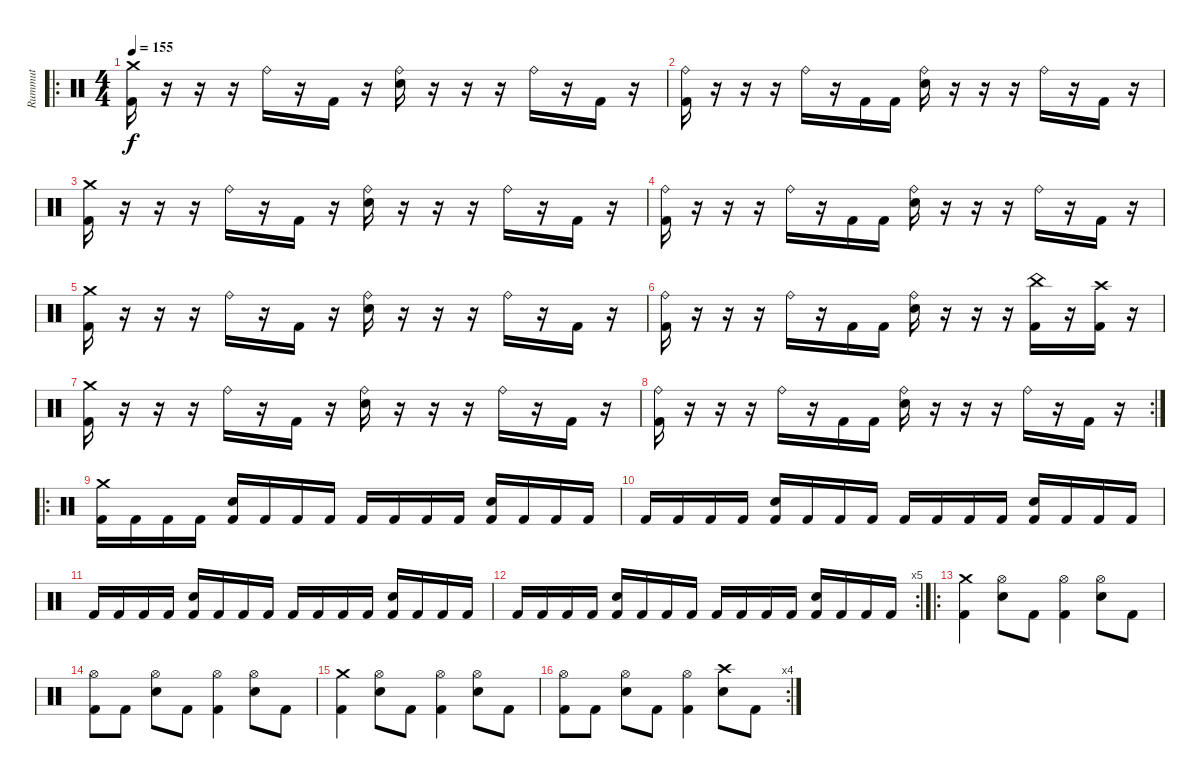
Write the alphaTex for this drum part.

\track ("Rummut" "Rummut") {instrument percussion}
\staff {score}
\articulation defaults
\ro
\ts (4 4)
\tempo 155
\clef neutral
\ks c
("Crash medium (hit)" "Kick (hit) 2").16{dy f} r.16 r.16 r.16 "Ride (bell)".16 r.16 "Kick (hit) 2".16 r.16 ("Ride (bell)" "Electric Snare (hit)").16 r.16 r.16 r.16 "Ride (bell)".16 r.16 "Kick (hit) 2".16 r.16 |
("Ride (bell)" "Kick (hit) 2").16 r.16 r.16 r.16 "Ride (bell)".16 r.16 "Kick (hit) 2".16 "Kick (hit) 2".16 ("Ride (bell)" "Electric Snare (hit)").16 r.16 r.16 r.16 "Ride (bell)".16 r.16 "Kick (hit) 2".16 r.16 |
("Crash medium (hit)" "Kick (hit) 2").16 r.16 r.16 r.16 "Ride (bell)".16 r.16 "Kick (hit) 2".16 r.16 ("Ride (bell)" "Electric Snare (hit)").16 r.16 r.16 r.16 "Ride (bell)".16 r.16 "Kick (hit) 2".16 r.16 |
("Ride (bell)" "Kick (hit) 2").16 r.16 r.16 r.16 "Ride (bell)".16 r.16 "Kick (hit) 2".16 "Kick (hit) 2".16 ("Ride (bell)" "Electric Snare (hit)").16 r.16 r.16 r.16 "Ride (bell)".16 r.16 "Kick (hit) 2".16 r.16 |
("Crash medium (hit)" "Kick (hit) 2").16 r.16 r.16 r.16 "Ride (bell)".16 r.16 "Kick (hit) 2".16 r.16 ("Ride (bell)" "Electric Snare (hit)").16 r.16 r.16 r.16 "Ride (bell)".16 r.16 "Kick (hit) 2".16 r.16 |
("Ride (bell)" "Kick (hit) 2").16 r.16 r.16 r.16 "Ride (bell)".16 r.16 "Kick (hit) 2".16 "Kick (hit) 2".16 ("Ride (bell)" "Electric Snare (hit)").16 r.16 r.16 r.16 ("China (hit)" "Kick (hit) 2").16 r.16 ("Crash high (hit)" "Kick (hit) 2").16 r.16 |
("Crash medium (hit)" "Kick (hit) 2").16 r.16 r.16 r.16 "Ride (bell)".16 r.16 "Kick (hit) 2".16 r.16 ("Ride (bell)" "Electric Snare (hit)").16 r.16 r.16 r.16 "Ride (bell)".16 r.16 "Kick (hit) 2".16 r.16 |
\rc 2
("Ride (bell)" "Kick (hit) 2").16 r.16 r.16 r.16 "Ride (bell)".16 r.16 "Kick (hit) 2".16 "Kick (hit) 2".16 ("Ride (bell)" "Electric Snare (hit)").16 r.16 r.16 r.16 "Ride (bell)".16 r.16 "Kick (hit) 2".16 r.16 |
\ro
("Crash medium (hit)" "Kick (hit) 2").16 "Kick (hit) 2".16 "Kick (hit) 2".16 "Kick (hit) 2".16 ("Electric Snare (hit)" "Kick (hit) 2").16 "Kick (hit) 2".16 "Kick (hit) 2".16 "Kick (hit) 2".16 "Kick (hit) 2".16 "Kick (hit) 2".16 "Kick (hit) 2".16 "Kick (hit) 2".16 ("Electric Snare (hit)" "Kick (hit) 2").16 "Kick (hit) 2".16 "Kick (hit) 2".16 "Kick (hit) 2".16 |
"Kick (hit) 2".16 "Kick (hit) 2".16 "Kick (hit) 2".16 "Kick (hit) 2".16 ("Electric Snare (hit)" "Kick (hit) 2").16 "Kick (hit) 2".16 "Kick (hit) 2".16 "Kick (hit) 2".16 "Kick (hit) 2".16 "Kick (hit) 2".16 "Kick (hit) 2".16 "Kick (hit) 2".16 ("Electric Snare (hit)" "Kick (hit) 2").16 "Kick (hit) 2".16 "Kick (hit) 2".16 "Kick (hit) 2".16 |
"Kick (hit) 2".16 "Kick (hit) 2".16 "Kick (hit) 2".16 "Kick (hit) 2".16 ("Electric Snare (hit)" "Kick (hit) 2").16 "Kick (hit) 2".16 "Kick (hit) 2".16 "Kick (hit) 2".16 "Kick (hit) 2".16 "Kick (hit) 2".16 "Kick (hit) 2".16 "Kick (hit) 2".16 ("Electric Snare (hit)" "Kick (hit) 2").16 "Kick (hit) 2".16 "Kick (hit) 2".16 "Kick (hit) 2".16 |
\rc 5 "Kick (hit) 2".16 "Kick (hit) 2".16 "Kick (hit) 2".16 "Kick (hit) 2".16
("Electric Snare (hit)" "Kick (hit) 2").16 "Kick (hit) 2".16 "Kick (hit) 2".16 "Kick (hit) 2".16 "Kick (hit) 2".16 "Kick (hit) 2".16 "Kick (hit) 2".16 "Kick (hit) 2".16 ("Electric Snare (hit)" "Kick (hit) 2").16 "Kick (hit) 2".16 "Kick (hit) 2".16 "Kick (hit) 2".16 |
\ro
("Crash medium (hit)" "Kick (hit) 2").4 ("Hi-Hat (open)" "Electric Snare (hit)").8 "Kick (hit) 2".8 ("Hi-Hat (open)" "Kick (hit) 2").4 ("Hi-Hat (open)" "Electric Snare (hit)").8 "Kick (hit) 2".8 |
("Hi-Hat (open)" "Kick (hit) 2").8 "Kick (hit) 2".8 ("Hi-Hat (open)" "Electric Snare (hit)").8 "Kick (hit) 2".8 ("Hi-Hat (open)" "Kick (hit) 2").4 ("Hi-Hat (open)" "Electric Snare (hit)").8 "Kick (hit) 2".8 |
("Crash medium (hit)" "Kick (hit) 2").4 ("Hi-Hat (open)" "Electric Snare (hit)").8 "Kick (hit) 2".8 ("Hi-Hat (open)" "Kick (hit) 2").4 ("Hi-Hat (open)" "Electric Snare (hit)").8 "Kick (hit) 2".8 |
\rc 4
("Hi-Hat (open)" "Kick (hit) 2").8 "Kick (hit) 2".8 ("Hi-Hat (open)" "Electric Snare (hit)").8 "Kick (hit) 2".8 ("Hi-Hat (open)" "Kick (hit) 2").4 ("Crash high (hit)" "Electric Snare (hit)").8 "Kick (hit) 2".8
